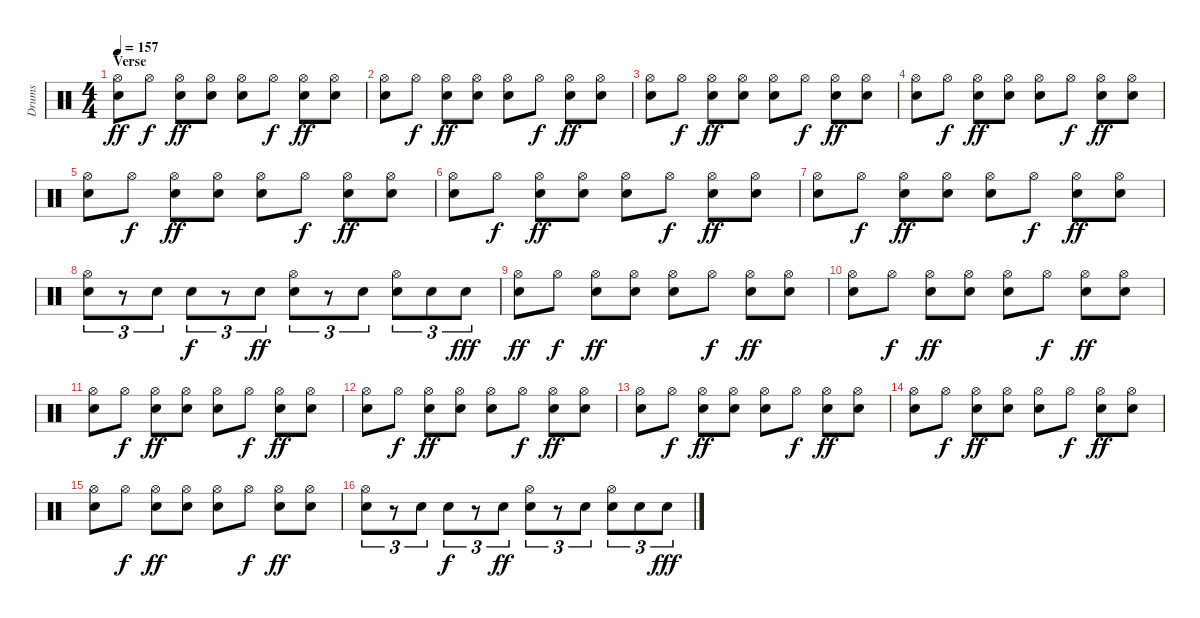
\track ("Drums" "Drums") {instrument percussion}
\staff {score}
\articulation defaults
\ts (4 4)
\section ("" "Verse")
\tempo 157
\clef neutral
\ks c
("Snare (hit) 2" "Hi-Hat (open)").8{dy ff} "Hi-Hat (open)".8{dy f} ("Snare (hit) 2" "Hi-Hat (open)").8{dy ff} ("Electric Snare (hit)" "Hi-Hat (open)").8 ("Snare (hit) 2" "Hi-Hat (open)").8 "Hi-Hat (open)".8{dy f} ("Snare (hit) 2" "Hi-Hat (open)").8{dy ff} ("Electric Snare (hit)" "Hi-Hat (open)").8 |
("Snare (hit) 2" "Hi-Hat (open)").8 "Hi-Hat (open)".8{dy f} ("Snare (hit) 2" "Hi-Hat (open)").8{dy ff} ("Electric Snare (hit)" "Hi-Hat (open)").8 ("Snare (hit) 2" "Hi-Hat (open)").8 "Hi-Hat (open)".8{dy f} ("Snare (hit) 2" "Hi-Hat (open)").8{dy ff} ("Electric Snare (hit)" "Hi-Hat (open)").8 |
("Snare (hit) 2" "Hi-Hat (open)").8 "Hi-Hat (open)".8{dy f} ("Snare (hit) 2" "Hi-Hat (open)").8{dy ff} ("Electric Snare (hit)" "Hi-Hat (open)").8 ("Snare (hit) 2" "Hi-Hat (open)").8 "Hi-Hat (open)".8{dy f} ("Snare (hit) 2" "Hi-Hat (open)").8{dy ff} ("Electric Snare (hit)" "Hi-Hat (open)").8 |
("Snare (hit) 2" "Hi-Hat (open)").8 "Hi-Hat (open)".8{dy f} ("Snare (hit) 2" "Hi-Hat (open)").8{dy ff} ("Electric Snare (hit)" "Hi-Hat (open)").8 ("Snare (hit) 2" "Hi-Hat (open)").8 "Hi-Hat (open)".8{dy f} ("Snare (hit) 2" "Hi-Hat (open)").8{dy ff} ("Electric Snare (hit)" "Hi-Hat (open)").8 |
("Snare (hit) 2" "Hi-Hat (open)").8 "Hi-Hat (open)".8{dy f} ("Snare (hit) 2" "Hi-Hat (open)").8{dy ff} ("Electric Snare (hit)" "Hi-Hat (open)").8 ("Snare (hit) 2" "Hi-Hat (open)").8 "Hi-Hat (open)".8{dy f} ("Snare (hit) 2" "Hi-Hat (open)").8{dy ff} ("Electric Snare (hit)" "Hi-Hat (open)").8 |
("Snare (hit) 2" "Hi-Hat (open)").8 "Hi-Hat (open)".8{dy f} ("Snare (hit) 2" "Hi-Hat (open)").8{dy ff} ("Electric Snare (hit)" "Hi-Hat (open)").8 ("Snare (hit) 2" "Hi-Hat (open)").8 "Hi-Hat (open)".8{dy f} ("Snare (hit) 2" "Hi-Hat (open)").8{dy ff} ("Electric Snare (hit)" "Hi-Hat (open)").8 |
("Snare (hit) 2" "Hi-Hat (open)").8 "Hi-Hat (open)".8{dy f} ("Snare (hit) 2" "Hi-Hat (open)").8{dy ff} ("Electric Snare (hit)" "Hi-Hat (open)").8 ("Snare (hit) 2" "Hi-Hat (open)").8 "Hi-Hat (open)".8{dy f} ("Snare (hit) 2" "Hi-Hat (open)").8{dy ff} ("Electric Snare (hit)" "Hi-Hat (open)").8 |
("Snare (hit) 2" "Hi-Hat (open)").8{tu (3 2)} r.8{tu (3 2)} "Snare (hit) 2".8{tu (3 2)} "Snare (hit) 2".8{tu (3 2) dy f} r.8{tu (3 2)} "Snare (hit) 2".8{tu (3 2) dy ff} ("Snare (hit) 2" "Hi-Hat (open)").8{tu (3 2)} r.8{tu (3 2)} "Snare (hit) 2".8{tu (3 2)} ("Snare (hit) 2" "Hi-Hat (open)").8{tu (3 2)} "Electric Snare (hit)".8{tu (3 2)} "Electric Snare (hit)".8{tu (3 2) dy fff} |
("Snare (hit) 2" "Hi-Hat (open)").8{dy ff} "Hi-Hat (open)".8{dy f} ("Snare (hit) 2" "Hi-Hat (open)").8{dy ff} ("Electric Snare (hit)" "Hi-Hat (open)").8 ("Snare (hit) 2" "Hi-Hat (open)").8 "Hi-Hat (open)".8{dy f} ("Snare (hit) 2" "Hi-Hat (open)").8{dy ff} ("Electric Snare (hit)" "Hi-Hat (open)").8 |
("Snare (hit) 2" "Hi-Hat (open)").8 "Hi-Hat (open)".8{dy f} ("Snare (hit) 2" "Hi-Hat (open)").8{dy ff} ("Electric Snare (hit)" "Hi-Hat (open)").8 ("Snare (hit) 2" "Hi-Hat (open)").8 "Hi-Hat (open)".8{dy f} ("Snare (hit) 2" "Hi-Hat (open)").8{dy ff} ("Electric Snare (hit)" "Hi-Hat (open)").8 |
("Snare (hit) 2" "Hi-Hat (open)").8 "Hi-Hat (open)".8{dy f} ("Snare (hit) 2" "Hi-Hat (open)").8{dy ff} ("Electric Snare (hit)" "Hi-Hat (open)").8 ("Snare (hit) 2" "Hi-Hat (open)").8 "Hi-Hat (open)".8{dy f} ("Snare (hit) 2" "Hi-Hat (open)").8{dy ff} ("Electric Snare (hit)" "Hi-Hat (open)").8 |
("Snare (hit) 2" "Hi-Hat (open)").8 "Hi-Hat (open)".8{dy f} ("Snare (hit) 2" "Hi-Hat (open)").8{dy ff} ("Electric Snare (hit)" "Hi-Hat (open)").8 ("Snare (hit) 2" "Hi-Hat (open)").8 "Hi-Hat (open)".8{dy f} ("Snare (hit) 2" "Hi-Hat (open)").8{dy ff} ("Electric Snare (hit)" "Hi-Hat (open)").8 |
("Snare (hit) 2" "Hi-Hat (open)").8 "Hi-Hat (open)".8{dy f} ("Snare (hit) 2" "Hi-Hat (open)").8{dy ff} ("Electric Snare (hit)" "Hi-Hat (open)").8 ("Snare (hit) 2" "Hi-Hat (open)").8 "Hi-Hat (open)".8{dy f} ("Snare (hit) 2" "Hi-Hat (open)").8{dy ff} ("Electric Snare (hit)" "Hi-Hat (open)").8 |
("Snare (hit) 2" "Hi-Hat (open)").8 "Hi-Hat (open)".8{dy f} ("Snare (hit) 2" "Hi-Hat (open)").8{dy ff} ("Electric Snare (hit)" "Hi-Hat (open)").8 ("Snare (hit) 2" "Hi-Hat (open)").8 "Hi-Hat (open)".8{dy f} ("Snare (hit) 2" "Hi-Hat (open)").8{dy ff} ("Electric Snare (hit)" "Hi-Hat (open)").8 |
("Snare (hit) 2" "Hi-Hat (open)").8 "Hi-Hat (open)".8{dy f} ("Snare (hit) 2" "Hi-Hat (open)").8{dy ff} ("Electric Snare (hit)" "Hi-Hat (open)").8 ("Snare (hit) 2" "Hi-Hat (open)").8 "Hi-Hat (open)".8{dy f} ("Snare (hit) 2" "Hi-Hat (open)").8{dy ff} ("Electric Snare (hit)" "Hi-Hat (open)").8 |
("Snare (hit) 2" "Hi-Hat (open)").8{tu (3 2)} r.8{tu (3 2)} "Snare (hit) 2".8{tu (3 2)} "Snare (hit) 2".8{tu (3 2) dy f} r.8{tu (3 2)} "Snare (hit) 2".8{tu (3 2) dy ff} ("Snare (hit) 2" "Hi-Hat (open)").8{tu (3 2)} r.8{tu (3 2)} "Snare (hit) 2".8{tu (3 2)} ("Snare (hit) 2" "Hi-Hat (open)").8{tu (3 2)} "Electric Snare (hit)".8{tu (3 2)} "Electric Snare (hit)".8{tu (3 2) dy fff}
